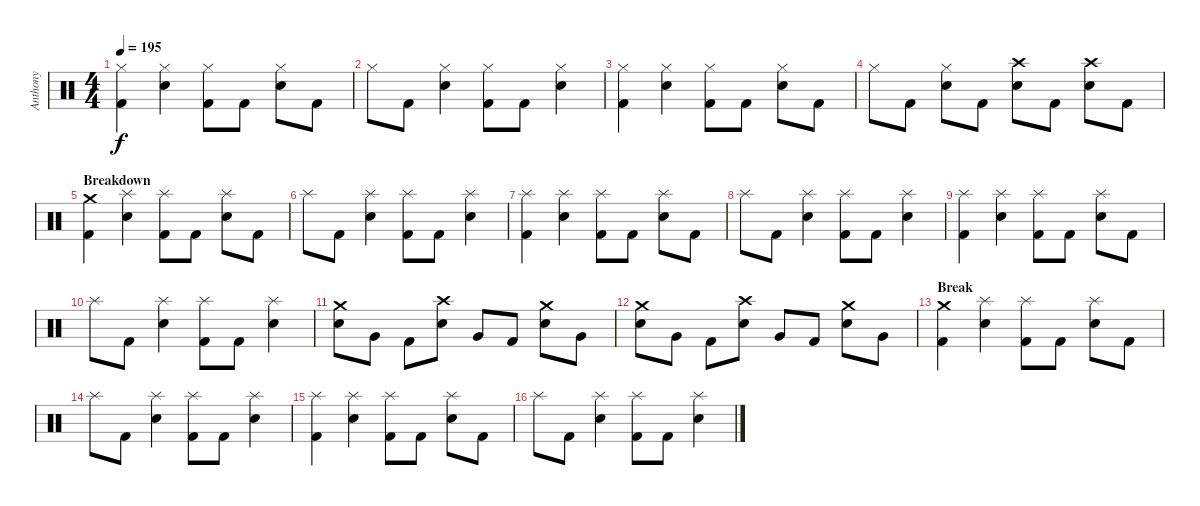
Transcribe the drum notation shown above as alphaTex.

\track ("Anthony" "Anthony") {instrument percussion}
\staff {score}
\articulation defaults
\ts (4 4)
\tempo 195
\clef neutral
\ks c
("Hi-Hat (closed)" "Kick (hit) 2").4{dy f} ("Hi-Hat (closed)" "Electric Snare (hit)").4 ("Hi-Hat (closed)" "Kick (hit) 2").8 "Kick (hit) 2".8 ("Hi-Hat (closed)" "Electric Snare (hit)").8 "Kick (hit) 2".8 |
"Hi-Hat (closed)".8 "Kick (hit) 2".8 ("Hi-Hat (closed)" "Electric Snare (hit)").4 ("Hi-Hat (closed)" "Kick (hit) 2").8 "Kick (hit) 2".8 ("Hi-Hat (closed)" "Electric Snare (hit)").4 |
("Hi-Hat (closed)" "Kick (hit) 2").4 ("Hi-Hat (closed)" "Electric Snare (hit)").4 ("Hi-Hat (closed)" "Kick (hit) 2").8 "Kick (hit) 2".8 ("Hi-Hat (closed)" "Electric Snare (hit)").8 "Kick (hit) 2".8 |
"Hi-Hat (closed)".8 "Kick (hit) 2".8 ("Hi-Hat (closed)" "Electric Snare (hit)").8 "Kick (hit) 2".8 ("Crash high (hit)" "Electric Snare (hit)").8 "Kick (hit) 2".8 ("Crash high (hit)" "Electric Snare (hit)").8 "Kick (hit) 2".8 |
\section ("" "Breakdown")
("Crash medium (hit)" "Kick (hit) 2").4 ("Splash (hit)" "Electric Snare (hit)").4 ("Splash (hit)" "Kick (hit) 2").8 "Kick (hit) 2".8 ("Splash (hit)" "Electric Snare (hit)").8 "Kick (hit) 2".8 |
"Splash (hit)".8 "Kick (hit) 2".8 ("Splash (hit)" "Electric Snare (hit)").4 ("Splash (hit)" "Kick (hit) 2").8 "Kick (hit) 2".8 ("Splash (hit)" "Electric Snare (hit)").4 |
("Splash (hit)" "Kick (hit) 2").4 ("Splash (hit)" "Electric Snare (hit)").4 ("Splash (hit)" "Kick (hit) 2").8 "Kick (hit) 2".8 ("Splash (hit)" "Electric Snare (hit)").8 "Kick (hit) 2".8 |
"Splash (hit)".8 "Kick (hit) 2".8 ("Splash (hit)" "Electric Snare (hit)").4 ("Splash (hit)" "Kick (hit) 2").8 "Kick (hit) 2".8 ("Splash (hit)" "Electric Snare (hit)").4 |
("Splash (hit)" "Kick (hit) 2").4 ("Splash (hit)" "Electric Snare (hit)").4 ("Splash (hit)" "Kick (hit) 2").8 "Kick (hit) 2".8 ("Splash (hit)" "Electric Snare (hit)").8 "Kick (hit) 2".8 |
"Splash (hit)".8 "Kick (hit) 2".8 ("Splash (hit)" "Electric Snare (hit)").4 ("Splash (hit)" "Kick (hit) 2").8 "Kick (hit) 2".8 ("Splash (hit)" "Electric Snare (hit)").4 |
("Crash medium (hit)" "Electric Snare (hit)").8 "Very Low Tom (hit)".8 "Kick (hit) 2".8 ("Crash high (hit)" "Electric Snare (hit)").8 "Very Low Tom (hit)".8 "Kick (hit) 2".8 ("Crash medium (hit)" "Electric Snare (hit)").8 "Very Low Tom (hit)".8 |
("Crash medium (hit)" "Electric Snare (hit)").8 "Very Low Tom (hit)".8 "Kick (hit) 2".8 ("Crash high (hit)" "Electric Snare (hit)").8 "Very Low Tom (hit)".8 "Kick (hit) 2".8 ("Crash medium (hit)" "Electric Snare (hit)").8 "Very Low Tom (hit)".8 |
\section ("" "Break")
("Crash medium (hit)" "Kick (hit) 2").4 ("Splash (hit)" "Electric Snare (hit)").4 ("Splash (hit)" "Kick (hit) 2").8 "Kick (hit) 2".8 ("Splash (hit)" "Electric Snare (hit)").8 "Kick (hit) 2".8 |
"Splash (hit)".8 "Kick (hit) 2".8 ("Splash (hit)" "Electric Snare (hit)").4 ("Splash (hit)" "Kick (hit) 2").8 "Kick (hit) 2".8 ("Splash (hit)" "Electric Snare (hit)").4 |
("Splash (hit)" "Kick (hit) 2").4 ("Splash (hit)" "Electric Snare (hit)").4 ("Splash (hit)" "Kick (hit) 2").8 "Kick (hit) 2".8 ("Splash (hit)" "Electric Snare (hit)").8 "Kick (hit) 2".8 |
"Splash (hit)".8 "Kick (hit) 2".8 ("Splash (hit)" "Electric Snare (hit)").4 ("Splash (hit)" "Kick (hit) 2").8 "Kick (hit) 2".8 ("Splash (hit)" "Electric Snare (hit)").4
